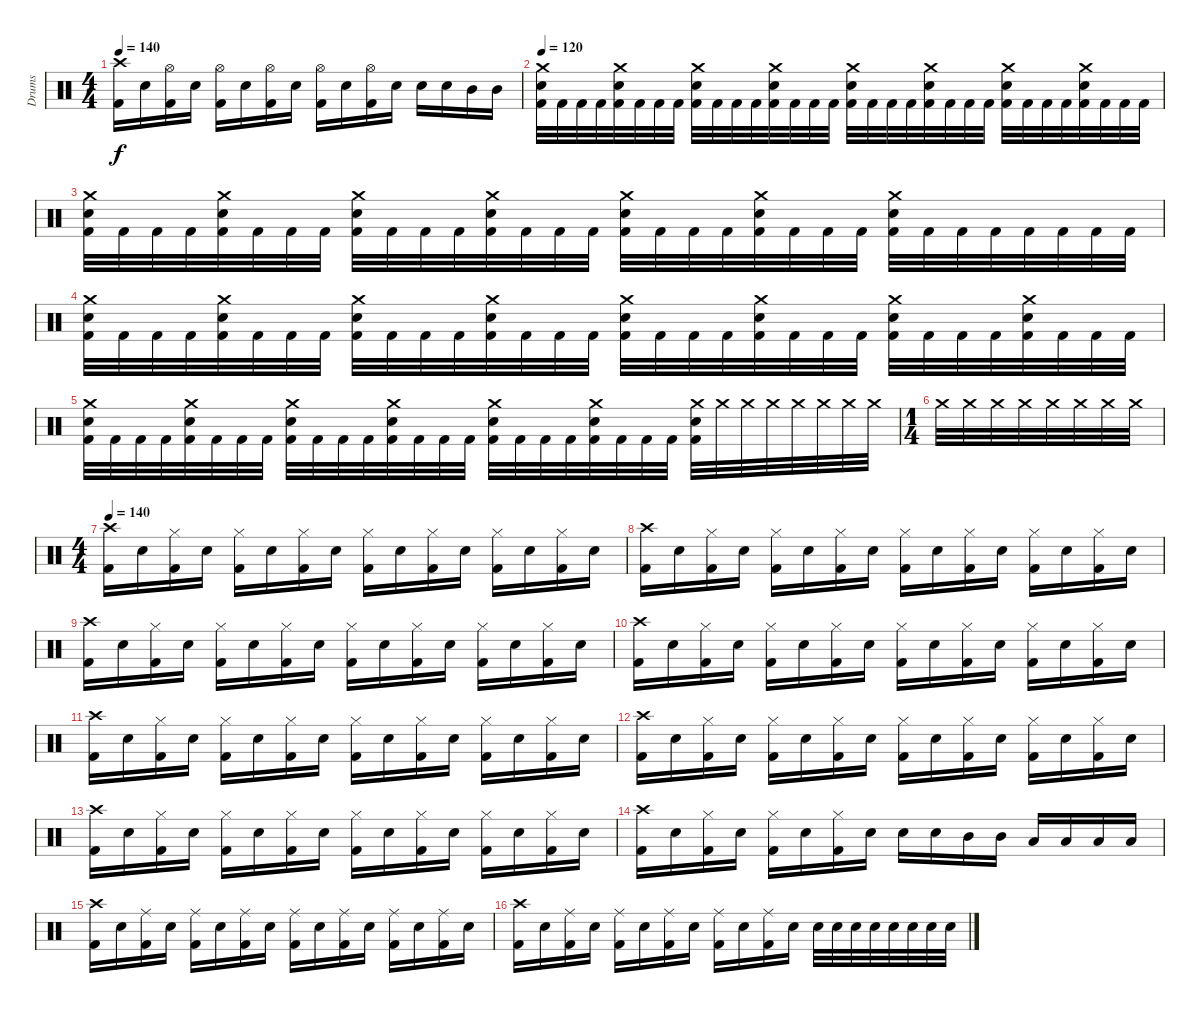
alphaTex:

\track ("Drums" "Drums") {instrument percussion}
\staff {score}
\articulation defaults
\ts (4 4)
\tempo 140
\clef neutral
\ks c
("Crash high (hit)" "Kick (hit) 2").16{dy f} "Snare (hit) 2".16 ("Hi-Hat (open)" "Kick (hit) 2").16 "Snare (hit) 2".16 ("Hi-Hat (open)" "Kick (hit) 2").16 "Snare (hit) 2".16 ("Hi-Hat (open)" "Kick (hit) 2").16 "Snare (hit) 2".16 ("Hi-Hat (open)" "Kick (hit) 2").16 "Snare (hit) 2".16 ("Hi-Hat (open)" "Kick (hit) 2").16 "Snare (hit) 2".16 "Snare (hit) 2".16 "Snare (hit) 2".16 "Mid Tom (hit)".16 "Mid Tom (hit)".16 |
\tempo 120
("Crash medium (hit)" "Snare (hit) 2" "Kick (hit) 2").32 "Kick (hit) 2".32 "Kick (hit) 2".32 "Kick (hit) 2".32 ("Crash medium (hit)" "Snare (hit) 2" "Kick (hit) 2").32 "Kick (hit) 2".32 "Kick (hit) 2".32 "Kick (hit) 2".32 ("Crash medium (hit)" "Snare (hit) 2" "Kick (hit) 2").32 "Kick (hit) 2".32 "Kick (hit) 2".32 "Kick (hit) 2".32 ("Crash medium (hit)" "Snare (hit) 2" "Kick (hit) 2").32 "Kick (hit) 2".32 "Kick (hit) 2".32 "Kick (hit) 2".32 ("Crash medium (hit)" "Snare (hit) 2" "Kick (hit) 2").32 "Kick (hit) 2".32 "Kick (hit) 2".32 "Kick (hit) 2".32 ("Crash medium (hit)" "Snare (hit) 2" "Kick (hit) 2").32 "Kick (hit) 2".32 "Kick (hit) 2".32 "Kick (hit) 2".32 ("Crash medium (hit)" "Snare (hit) 2" "Kick (hit) 2").32 "Kick (hit) 2".32 "Kick (hit) 2".32 "Kick (hit) 2".32 ("Crash medium (hit)" "Snare (hit) 2" "Kick (hit) 2").32 "Kick (hit) 2".32 "Kick (hit) 2".32 "Kick (hit) 2".32 |
("Crash medium (hit)" "Snare (hit) 2" "Kick (hit) 2").32 "Kick (hit) 2".32 "Kick (hit) 2".32 "Kick (hit) 2".32 ("Crash medium (hit)" "Snare (hit) 2" "Kick (hit) 2").32 "Kick (hit) 2".32 "Kick (hit) 2".32 "Kick (hit) 2".32 ("Crash medium (hit)" "Snare (hit) 2" "Kick (hit) 2").32 "Kick (hit) 2".32 "Kick (hit) 2".32 "Kick (hit) 2".32 ("Crash medium (hit)" "Snare (hit) 2" "Kick (hit) 2").32 "Kick (hit) 2".32 "Kick (hit) 2".32 "Kick (hit) 2".32 ("Crash medium (hit)" "Snare (hit) 2" "Kick (hit) 2").32 "Kick (hit) 2".32 "Kick (hit) 2".32 "Kick (hit) 2".32 ("Crash medium (hit)" "Snare (hit) 2" "Kick (hit) 2").32 "Kick (hit) 2".32 "Kick (hit) 2".32 "Kick (hit) 2".32 ("Crash medium (hit)" "Snare (hit) 2" "Kick (hit) 2").32 "Kick (hit) 2".32 "Kick (hit) 2".32 "Kick (hit) 2".32 "Kick (hit) 2".32 "Kick (hit) 2".32 "Kick (hit) 2".32 "Kick (hit) 2".32 |
("Crash medium (hit)" "Snare (hit) 2" "Kick (hit) 2").32 "Kick (hit) 2".32 "Kick (hit) 2".32 "Kick (hit) 2".32 ("Crash medium (hit)" "Snare (hit) 2" "Kick (hit) 2").32 "Kick (hit) 2".32 "Kick (hit) 2".32 "Kick (hit) 2".32 ("Crash medium (hit)" "Snare (hit) 2" "Kick (hit) 2").32 "Kick (hit) 2".32 "Kick (hit) 2".32 "Kick (hit) 2".32 ("Crash medium (hit)" "Snare (hit) 2" "Kick (hit) 2").32 "Kick (hit) 2".32 "Kick (hit) 2".32 "Kick (hit) 2".32 ("Crash medium (hit)" "Snare (hit) 2" "Kick (hit) 2").32 "Kick (hit) 2".32 "Kick (hit) 2".32 "Kick (hit) 2".32 ("Crash medium (hit)" "Snare (hit) 2" "Kick (hit) 2").32 "Kick (hit) 2".32 "Kick (hit) 2".32 "Kick (hit) 2".32 ("Crash medium (hit)" "Snare (hit) 2" "Kick (hit) 2").32 "Kick (hit) 2".32 "Kick (hit) 2".32 "Kick (hit) 2".32 ("Crash medium (hit)" "Snare (hit) 2" "Kick (hit) 2").32 "Kick (hit) 2".32 "Kick (hit) 2".32 "Kick (hit) 2".32 |
("Crash medium (hit)" "Snare (hit) 2" "Kick (hit) 2").32 "Kick (hit) 2".32 "Kick (hit) 2".32 "Kick (hit) 2".32 ("Crash medium (hit)" "Snare (hit) 2" "Kick (hit) 2").32 "Kick (hit) 2".32 "Kick (hit) 2".32 "Kick (hit) 2".32 ("Crash medium (hit)" "Snare (hit) 2" "Kick (hit) 2").32 "Kick (hit) 2".32 "Kick (hit) 2".32 "Kick (hit) 2".32 ("Crash medium (hit)" "Snare (hit) 2" "Kick (hit) 2").32 "Kick (hit) 2".32 "Kick (hit) 2".32 "Kick (hit) 2".32 ("Crash medium (hit)" "Snare (hit) 2" "Kick (hit) 2").32 "Kick (hit) 2".32 "Kick (hit) 2".32 "Kick (hit) 2".32 ("Crash medium (hit)" "Snare (hit) 2" "Kick (hit) 2").32 "Kick (hit) 2".32 "Kick (hit) 2".32 "Kick (hit) 2".32 ("Crash medium (hit)" "Snare (hit) 2" "Kick (hit) 2").32 "Crash medium (hit)".32 "Crash medium (hit)".32 "Crash medium (hit)".32 "Crash medium (hit)".32 "Crash medium (hit)".32 "Crash medium (hit)".32 "Crash medium (hit)".32 |
\ts (1 4)
"Crash medium (hit)".32 "Crash medium (hit)".32 "Crash medium (hit)".32 "Crash medium (hit)".32 "Crash medium (hit)".32 "Crash medium (hit)".32 "Crash medium (hit)".32 "Crash medium (hit)".32 |
\ts (4 4)
\tempo 140
("Crash high (hit)" "Kick (hit) 2").16 "Snare (hit) 2".16 ("Hi-Hat (closed)" "Kick (hit) 2").16 "Snare (hit) 2".16 ("Hi-Hat (closed)" "Kick (hit) 2").16 "Snare (hit) 2".16 ("Hi-Hat (closed)" "Kick (hit) 2").16 "Snare (hit) 2".16 ("Hi-Hat (closed)" "Kick (hit) 2").16 "Snare (hit) 2".16 ("Hi-Hat (closed)" "Kick (hit) 2").16 "Snare (hit) 2".16 ("Hi-Hat (closed)" "Kick (hit) 2").16 "Snare (hit) 2".16 ("Hi-Hat (closed)" "Kick (hit) 2").16 "Snare (hit) 2".16 |
("Crash high (hit)" "Kick (hit) 2").16 "Snare (hit) 2".16 ("Hi-Hat (closed)" "Kick (hit) 2").16 "Snare (hit) 2".16 ("Hi-Hat (closed)" "Kick (hit) 2").16 "Snare (hit) 2".16 ("Hi-Hat (closed)" "Kick (hit) 2").16 "Snare (hit) 2".16 ("Hi-Hat (closed)" "Kick (hit) 2").16 "Snare (hit) 2".16 ("Hi-Hat (closed)" "Kick (hit) 2").16 "Snare (hit) 2".16 ("Hi-Hat (closed)" "Kick (hit) 2").16 "Snare (hit) 2".16 ("Hi-Hat (closed)" "Kick (hit) 2").16 "Snare (hit) 2".16 |
("Crash high (hit)" "Kick (hit) 2").16 "Snare (hit) 2".16 ("Hi-Hat (closed)" "Kick (hit) 2").16 "Snare (hit) 2".16 ("Hi-Hat (closed)" "Kick (hit) 2").16 "Snare (hit) 2".16 ("Hi-Hat (closed)" "Kick (hit) 2").16 "Snare (hit) 2".16 ("Hi-Hat (closed)" "Kick (hit) 2").16 "Snare (hit) 2".16 ("Hi-Hat (closed)" "Kick (hit) 2").16 "Snare (hit) 2".16 ("Hi-Hat (closed)" "Kick (hit) 2").16 "Snare (hit) 2".16 ("Hi-Hat (closed)" "Kick (hit) 2").16 "Snare (hit) 2".16 |
("Crash high (hit)" "Kick (hit) 2").16 "Snare (hit) 2".16 ("Hi-Hat (closed)" "Kick (hit) 2").16 "Snare (hit) 2".16 ("Hi-Hat (closed)" "Kick (hit) 2").16 "Snare (hit) 2".16 ("Hi-Hat (closed)" "Kick (hit) 2").16 "Snare (hit) 2".16 ("Hi-Hat (closed)" "Kick (hit) 2").16 "Snare (hit) 2".16 ("Hi-Hat (closed)" "Kick (hit) 2").16 "Snare (hit) 2".16 ("Hi-Hat (closed)" "Kick (hit) 2").16 "Snare (hit) 2".16 ("Hi-Hat (closed)" "Kick (hit) 2").16 "Snare (hit) 2".16 |
("Crash high (hit)" "Kick (hit) 2").16 "Snare (hit) 2".16 ("Hi-Hat (closed)" "Kick (hit) 2").16 "Snare (hit) 2".16 ("Hi-Hat (closed)" "Kick (hit) 2").16 "Snare (hit) 2".16 ("Hi-Hat (closed)" "Kick (hit) 2").16 "Snare (hit) 2".16 ("Hi-Hat (closed)" "Kick (hit) 2").16 "Snare (hit) 2".16 ("Hi-Hat (closed)" "Kick (hit) 2").16 "Snare (hit) 2".16 ("Hi-Hat (closed)" "Kick (hit) 2").16 "Snare (hit) 2".16 ("Hi-Hat (closed)" "Kick (hit) 2").16 "Snare (hit) 2".16 |
("Crash high (hit)" "Kick (hit) 2").16 "Snare (hit) 2".16 ("Hi-Hat (closed)" "Kick (hit) 2").16 "Snare (hit) 2".16 ("Hi-Hat (closed)" "Kick (hit) 2").16 "Snare (hit) 2".16 ("Hi-Hat (closed)" "Kick (hit) 2").16 "Snare (hit) 2".16 ("Hi-Hat (closed)" "Kick (hit) 2").16 "Snare (hit) 2".16 ("Hi-Hat (closed)" "Kick (hit) 2").16 "Snare (hit) 2".16 ("Hi-Hat (closed)" "Kick (hit) 2").16 "Snare (hit) 2".16 ("Hi-Hat (closed)" "Kick (hit) 2").16 "Snare (hit) 2".16 |
("Crash high (hit)" "Kick (hit) 2").16 "Snare (hit) 2".16 ("Hi-Hat (closed)" "Kick (hit) 2").16 "Snare (hit) 2".16 ("Hi-Hat (closed)" "Kick (hit) 2").16 "Snare (hit) 2".16 ("Hi-Hat (closed)" "Kick (hit) 2").16 "Snare (hit) 2".16 ("Hi-Hat (closed)" "Kick (hit) 2").16 "Snare (hit) 2".16 ("Hi-Hat (closed)" "Kick (hit) 2").16 "Snare (hit) 2".16 ("Hi-Hat (closed)" "Kick (hit) 2").16 "Snare (hit) 2".16 ("Hi-Hat (closed)" "Kick (hit) 2").16 "Snare (hit) 2".16 |
("Crash high (hit)" "Kick (hit) 2").16 "Snare (hit) 2".16 ("Hi-Hat (closed)" "Kick (hit) 2").16 "Snare (hit) 2".16 ("Hi-Hat (closed)" "Kick (hit) 2").16 "Snare (hit) 2".16 ("Hi-Hat (closed)" "Kick (hit) 2").16 "Snare (hit) 2".16 "Snare (hit) 2".16 "Snare (hit) 2".16 "Mid Tom (hit)".16 "Mid Tom (hit)".16 "Low Tom (hit)".16 "Low Tom (hit)".16 "Low Floor Tom (hit)".16 "Low Floor Tom (hit)".16 |
("Crash high (hit)" "Kick (hit) 2").16 "Snare (hit) 2".16 ("Ride (middle)" "Kick (hit) 2").16 "Snare (hit) 2".16 ("Ride (middle)" "Kick (hit) 2").16 "Snare (hit) 2".16 ("Ride (middle)" "Kick (hit) 2").16 "Snare (hit) 2".16 ("Ride (middle)" "Kick (hit) 2").16 "Snare (hit) 2".16 ("Ride (middle)" "Kick (hit) 2").16 "Snare (hit) 2".16 ("Ride (middle)" "Kick (hit) 2").16 "Snare (hit) 2".16 ("Ride (middle)" "Kick (hit) 2").16 "Snare (hit) 2".16 |
("Crash high (hit)" "Kick (hit) 2").16 "Snare (hit) 2".16 ("Ride (middle)" "Kick (hit) 2").16 "Snare (hit) 2".16 ("Ride (middle)" "Kick (hit) 2").16 "Snare (hit) 2".16 ("Ride (middle)" "Kick (hit) 2").16 "Snare (hit) 2".16 ("Ride (middle)" "Kick (hit) 2").16 "Snare (hit) 2".16 ("Ride (middle)" "Kick (hit) 2").16 "Snare (hit) 2".16 "Snare (hit) 2".32 "Snare (hit) 2".32 "Snare (hit) 2".32 "Snare (hit) 2".32 "Snare (hit) 2".32 "Snare (hit) 2".32 "Snare (hit) 2".32 "Snare (hit) 2".32
